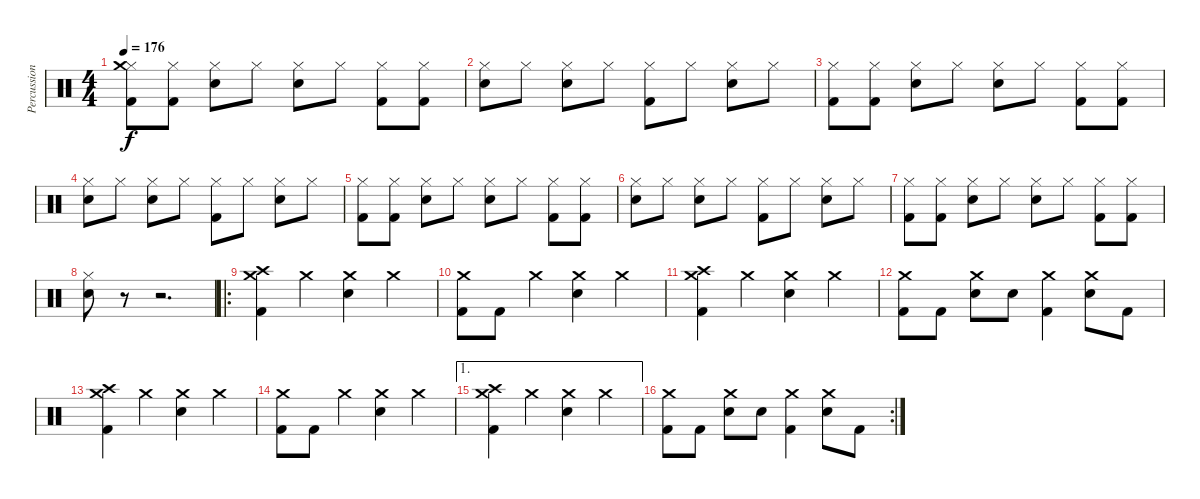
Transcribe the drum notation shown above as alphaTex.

\track ("Percussion" "Percussion") {instrument percussion}
\staff {score}
\articulation defaults
\ts (4 4)
\tempo 176
\clef neutral
\ks c
("Hi-Hat (closed)" "Crash medium (hit)" "Kick (hit) 2").8{dy f} ("Hi-Hat (closed)" "Kick (hit) 2").8 ("Hi-Hat (closed)" "Snare (hit) 2").8 "Hi-Hat (closed)".8 ("Hi-Hat (closed)" "Snare (hit) 2").8 "Hi-Hat (closed)".8 ("Hi-Hat (closed)" "Kick (hit) 2").8 ("Hi-Hat (closed)" "Kick (hit) 2").8 |
("Hi-Hat (closed)" "Snare (hit) 2").8 "Hi-Hat (closed)".8 ("Hi-Hat (closed)" "Snare (hit) 2").8 "Hi-Hat (closed)".8 ("Hi-Hat (closed)" "Kick (hit) 2").8 "Hi-Hat (closed)".8 ("Hi-Hat (closed)" "Snare (hit) 2").8 "Hi-Hat (closed)".8 |
("Hi-Hat (closed)" "Kick (hit) 2").8 ("Hi-Hat (closed)" "Kick (hit) 2").8 ("Hi-Hat (closed)" "Snare (hit) 2").8 "Hi-Hat (closed)".8 ("Hi-Hat (closed)" "Snare (hit) 2").8 "Hi-Hat (closed)".8 ("Hi-Hat (closed)" "Kick (hit) 2").8 ("Hi-Hat (closed)" "Kick (hit) 2").8 |
("Hi-Hat (closed)" "Snare (hit) 2").8 "Hi-Hat (closed)".8 ("Hi-Hat (closed)" "Snare (hit) 2").8 "Hi-Hat (closed)".8 ("Hi-Hat (closed)" "Kick (hit) 2").8 "Hi-Hat (closed)".8 ("Hi-Hat (closed)" "Snare (hit) 2").8 "Hi-Hat (closed)".8 |
("Hi-Hat (closed)" "Kick (hit) 2").8 ("Hi-Hat (closed)" "Kick (hit) 2").8 ("Hi-Hat (closed)" "Snare (hit) 2").8 "Hi-Hat (closed)".8 ("Hi-Hat (closed)" "Snare (hit) 2").8 "Hi-Hat (closed)".8 ("Hi-Hat (closed)" "Kick (hit) 2").8 ("Hi-Hat (closed)" "Kick (hit) 2").8 |
("Hi-Hat (closed)" "Snare (hit) 2").8 "Hi-Hat (closed)".8 ("Hi-Hat (closed)" "Snare (hit) 2").8 "Hi-Hat (closed)".8 ("Hi-Hat (closed)" "Kick (hit) 2").8 "Hi-Hat (closed)".8 ("Hi-Hat (closed)" "Snare (hit) 2").8 "Hi-Hat (closed)".8 |
("Hi-Hat (closed)" "Kick (hit) 2").8 ("Hi-Hat (closed)" "Kick (hit) 2").8 ("Hi-Hat (closed)" "Snare (hit) 2").8 "Hi-Hat (closed)".8 ("Hi-Hat (closed)" "Snare (hit) 2").8 "Hi-Hat (closed)".8 ("Hi-Hat (closed)" "Kick (hit) 2").8 ("Hi-Hat (closed)" "Kick (hit) 2").8 |
("Hi-Hat (closed)" "Snare (hit) 2").8 r.8 r.2{d} |
\ro
("Crash medium (hit)" "Crash high (hit)" "Kick (hit) 2").4 "Crash medium (hit)".4 ("Crash medium (hit)" "Snare (hit) 2").4 "Crash medium (hit)".4 |
("Crash medium (hit)" "Kick (hit) 2").8 "Kick (hit) 2".8 "Crash medium (hit)".4 ("Crash medium (hit)" "Snare (hit) 2").4 "Crash medium (hit)".4 |
("Crash medium (hit)" "Crash high (hit)" "Kick (hit) 2").4 "Crash medium (hit)".4 ("Crash medium (hit)" "Snare (hit) 2").4 "Crash medium (hit)".4 |
("Crash medium (hit)" "Kick (hit) 2").8 "Kick (hit) 2".8 ("Crash medium (hit)" "Snare (hit) 2").8 "Snare (hit) 2".8 ("Crash medium (hit)" "Kick (hit) 2").4 ("Crash medium (hit)" "Snare (hit) 2").8 "Kick (hit) 2".8 |
("Crash medium (hit)" "Crash high (hit)" "Kick (hit) 2").4 "Crash medium (hit)".4 ("Crash medium (hit)" "Snare (hit) 2").4 "Crash medium (hit)".4 |
("Crash medium (hit)" "Kick (hit) 2").8 "Kick (hit) 2".8 "Crash medium (hit)".4 ("Crash medium (hit)" "Snare (hit) 2").4 "Crash medium (hit)".4 |
\ae 1
("Crash medium (hit)" "Crash high (hit)" "Kick (hit) 2").4 "Crash medium (hit)".4 ("Crash medium (hit)" "Snare (hit) 2").4 "Crash medium (hit)".4 |
\rc 2
("Crash medium (hit)" "Kick (hit) 2").8 "Kick (hit) 2".8 ("Crash medium (hit)" "Snare (hit) 2").8 "Snare (hit) 2".8 ("Crash medium (hit)" "Kick (hit) 2").4 ("Crash medium (hit)" "Snare (hit) 2").8 "Kick (hit) 2".8
